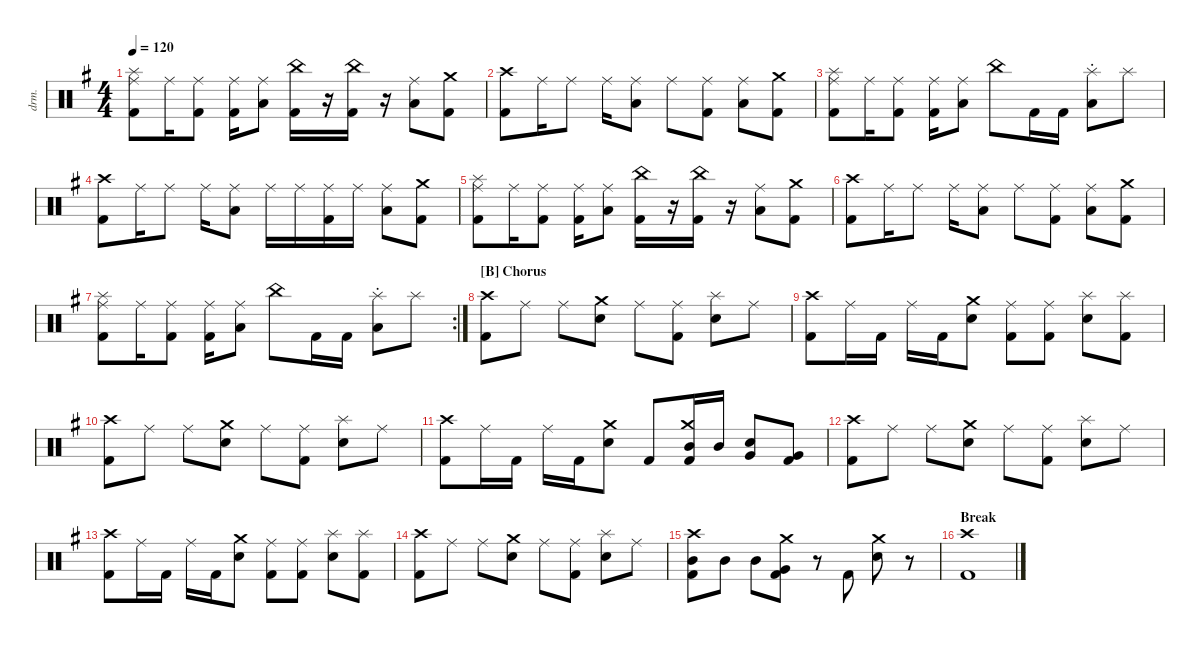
\defaultSystemsLayout 4
\hideDynamics
\bracketExtendMode nobrackets
\track ("Drums" "drm.") {instrument percussion}
\staff {score}
\articulation defaults
\ts (4 4)
\tempo 120
\clef neutral
\ks g
("Kick (hit) 2"{acc forcenatural} "Ride (middle)"{acc forcenatural} "Splash (hit)"{acc forcenatural}).8{dy mf beam Down} "Ride (middle)"{acc forcenatural}.16{beam Down} ("Kick (hit) 2"{acc forcenatural} "Ride (middle)"{acc forcenatural}).8{beam Down} ("Kick (hit) 2"{acc forcenatural} "Ride (middle)"{acc forcenatural}).16{beam Down} ("Low Floor Tom (hit)"{acc forcenatural} "Ride (middle)"{acc forcenatural}).8{beam Down} ("Kick (hit) 2"{acc forcenatural} "China (choke)"{acc forcenatural}).16{beam Down} r.16{beam Down} ("Kick (hit) 2"{acc forcenatural} "China (choke)"{acc forcenatural}).16{beam Down} r.16{beam Down} ("Low Floor Tom (hit)"{acc forcenatural} "Ride (middle)"{acc forcenatural}).8{beam Down} ("Kick (hit) 2"{acc forcenatural} "Crash medium (hit)"{acc forcenatural}).8{beam Down} |
("Kick (hit) 2"{acc forcenatural} "Crash high (hit)"{acc forcenatural}).8{beam Down} "Ride (middle)"{acc forcenatural}.16{beam Down} "Ride (middle)"{acc forcenatural}.8{beam Down} "Ride (middle)"{acc forcenatural}.16{beam Down} ("Low Floor Tom (hit)"{acc forcenatural} "Ride (middle)"{acc forcenatural}).8{beam Down} "Ride (middle)"{acc forcenatural}.8{beam Down} ("Kick (hit) 2"{acc forcenatural} "Ride (middle)"{acc forcenatural}).8{beam Down} ("Low Floor Tom (hit)"{acc forcenatural} "Ride (middle)"{acc forcenatural}).8{beam Down} ("Kick (hit) 2"{acc forcenatural} "Crash medium (hit)"{acc forcenatural}).8{beam Down} |
("Kick (hit) 2"{acc forcenatural} "Splash (hit)"{acc forcenatural} "Ride (middle)"{acc forcenatural}).8{beam Down} "Ride (middle)"{acc forcenatural}.16{beam Down} ("Kick (hit) 2"{acc forcenatural} "Ride (middle)"{acc forcenatural}).8{beam Down} ("Kick (hit) 2"{acc forcenatural} "Ride (middle)"{acc forcenatural}).16{beam Down} ("Low Floor Tom (hit)"{acc forcenatural} "Ride (middle)"{acc forcenatural}).8{beam Down} "China (choke)"{acc forcenatural}.8{beam Down} "Kick (hit) 2"{acc forcenatural}.16{beam Down} "Kick (hit) 2"{acc forcenatural}.16{beam Down} ("Low Floor Tom (hit)"{acc forcenatural} "Splash (choke)"{acc forcenatural}).8{beam Down} "Splash (hit)"{acc forcenatural}.8{beam Down} |
("Kick (hit) 2"{acc forcenatural} "Crash high (hit)"{acc forcenatural}).8{beam Down} "Ride (middle)"{acc forcenatural}.16{beam Down} "Ride (middle)"{acc forcenatural}.8{beam Down} "Ride (middle)"{acc forcenatural}.16{beam Down} ("Low Floor Tom (hit)"{acc forcenatural} "Ride (middle)"{acc forcenatural}).8{beam Down} "Ride (middle)"{acc forcenatural}.16{beam Down} "Ride (middle)"{acc forcenatural}.16{beam Down} ("Kick (hit) 2"{acc forcenatural} "Ride (middle)"{acc forcenatural}).16{beam Down} "Ride (middle)"{acc forcenatural}.16{beam Down} ("Low Floor Tom (hit)"{acc forcenatural} "Ride (middle)"{acc forcenatural}).8{beam Down} ("Kick (hit) 2"{acc forcenatural} "Crash medium (hit)"{acc forcenatural}).8{beam Down} |
("Kick (hit) 2"{acc forcenatural} "Ride (middle)"{acc forcenatural} "Splash (hit)"{acc forcenatural}).8{beam Down} "Ride (middle)"{acc forcenatural}.16{beam Down} ("Kick (hit) 2"{acc forcenatural} "Ride (middle)"{acc forcenatural}).8{beam Down} ("Kick (hit) 2"{acc forcenatural} "Ride (middle)"{acc forcenatural}).16{beam Down} ("Low Floor Tom (hit)"{acc forcenatural} "Ride (middle)"{acc forcenatural}).8{beam Down} ("Kick (hit) 2"{acc forcenatural} "China (choke)"{acc forcenatural}).16{beam Down} r.16{beam Down} ("Kick (hit) 2"{acc forcenatural} "China (choke)"{acc forcenatural}).16{beam Down} r.16{beam Down} ("Low Floor Tom (hit)"{acc forcenatural} "Ride (middle)"{acc forcenatural}).8{beam Down} ("Kick (hit) 2"{acc forcenatural} "Crash medium (hit)"{acc forcenatural}).8{beam Down} |
("Kick (hit) 2"{acc forcenatural} "Crash high (hit)"{acc forcenatural}).8{beam Down} "Ride (middle)"{acc forcenatural}.16{beam Down} "Ride (middle)"{acc forcenatural}.8{beam Down} "Ride (middle)"{acc forcenatural}.16{beam Down} ("Low Floor Tom (hit)"{acc forcenatural} "Ride (middle)"{acc forcenatural}).8{beam Down} "Ride (middle)"{acc forcenatural}.8{beam Down} ("Kick (hit) 2"{acc forcenatural} "Ride (middle)"{acc forcenatural}).8{beam Down} ("Low Floor Tom (hit)"{acc forcenatural} "Ride (middle)"{acc forcenatural}).8{beam Down} ("Kick (hit) 2"{acc forcenatural} "Crash medium (hit)"{acc forcenatural}).8{beam Down} |
\rc 2
("Kick (hit) 2"{acc forcenatural} "Splash (hit)"{acc forcenatural} "Ride (middle)"{acc forcenatural}).8{beam Down} "Ride (middle)"{acc forcenatural}.16{beam Down} ("Kick (hit) 2"{acc forcenatural} "Ride (middle)"{acc forcenatural}).8{beam Down} ("Kick (hit) 2"{acc forcenatural} "Ride (middle)"{acc forcenatural}).16{beam Down} ("Low Floor Tom (hit)"{acc forcenatural} "Ride (middle)"{acc forcenatural}).8{beam Down} "China (choke)"{acc forcenatural}.8{beam Down} "Kick (hit) 2"{acc forcenatural}.16{beam Down} "Kick (hit) 2"{acc forcenatural}.16{beam Down} ("Low Floor Tom (hit)"{acc forcenatural} "Splash (choke)"{acc forcenatural}).8{beam Down} "Splash (hit)"{acc forcenatural}.8{beam Down} |
\section ("B" "Chorus")
("Crash high (hit)"{acc forcenatural} "Kick (hit) 2"{acc forcenatural}).8{beam Down} "Ride (middle)"{acc forcenatural}.8{beam Down} "Ride (middle)"{acc forcenatural}.8{beam Down} ("Crash medium (hit)"{acc forcenatural} "Snare (hit) 2"{acc forcenatural}).8{beam Down} "Ride (middle)"{acc forcenatural}.8{beam Down} ("Ride (middle)"{acc forcenatural} "Kick (hit) 2"{acc forcenatural}).8{beam Down} ("Splash (hit)"{acc forcenatural} "Snare (hit) 2"{acc forcenatural}).8{beam Down} "Ride (middle)"{acc forcenatural}.8{beam Down} |
("Crash high (hit)"{acc forcenatural} "Kick (hit) 2"{acc forcenatural}).8{beam Down} "Ride (middle)"{acc forcenatural}.16{beam Down} "Kick (hit) 2"{acc forcenatural}.16{beam Down} "Ride (middle)"{acc forcenatural}.16{beam Down} "Kick (hit) 2"{acc forcenatural}.16{beam Down} ("Crash medium (hit)"{acc forcenatural} "Snare (hit) 2"{acc forcenatural}).8{beam Down} ("Ride (middle)"{acc forcenatural} "Kick (hit) 2"{acc forcenatural}).8{beam Down} ("Ride (middle)"{acc forcenatural} "Kick (hit) 2"{acc forcenatural}).8{beam Down} ("Splash (hit)"{acc forcenatural} "Snare (hit) 2"{acc forcenatural}).8{beam Down} ("Splash (hit)"{acc forcenatural} "Kick (hit) 2"{acc forcenatural}).8{beam Down} |
("Crash high (hit)"{acc forcenatural} "Kick (hit) 2"{acc forcenatural}).8{beam Down} "Ride (middle)"{acc forcenatural}.8{beam Down} "Ride (middle)"{acc forcenatural}.8{beam Down} ("Crash medium (hit)"{acc forcenatural} "Snare (hit) 2"{acc forcenatural}).8{beam Down} "Ride (middle)"{acc forcenatural}.8{beam Down} ("Ride (middle)"{acc forcenatural} "Kick (hit) 2"{acc forcenatural}).8{beam Down} ("Splash (hit)"{acc forcenatural} "Snare (hit) 2"{acc forcenatural}).8{beam Down} "Ride (middle)"{acc forcenatural}.8{beam Down} |
("Crash high (hit)"{acc forcenatural} "Kick (hit) 2"{acc forcenatural}).8{beam Down} "Ride (middle)"{acc forcenatural}.16{beam Down} "Kick (hit) 2"{acc forcenatural}.16{beam Down} "Ride (middle)"{acc forcenatural}.16{beam Down} "Kick (hit) 2"{acc forcenatural}.16{beam Down} ("Crash medium (hit)"{acc forcenatural} "Snare (hit) 2"{acc forcenatural}).8{beam Down} "Kick (hit) 2"{acc forcenatural}.8{beam Up} ("Crash medium (hit)"{acc forcenatural} "Kick (hit) 2"{acc forcenatural} "Mid Tom (hit)"{acc forcenatural}).16{beam Up} "Mid Tom (hit)"{acc forcenatural}.16{beam Up} ("Snare (hit) 2"{acc forcenatural} "Very Low Tom (hit)"{acc forcenatural}).8{beam Up} ("Kick (hit) 2"{acc forcenatural} "Very Low Tom (hit)"{acc forcenatural}).8{beam Up} |
("Crash high (hit)"{acc forcenatural} "Kick (hit) 2"{acc forcenatural}).8{beam Down} "Ride (middle)"{acc forcenatural}.8{beam Down} "Ride (middle)"{acc forcenatural}.8{beam Down} ("Crash medium (hit)"{acc forcenatural} "Snare (hit) 2"{acc forcenatural}).8{beam Down} "Ride (middle)"{acc forcenatural}.8{beam Down} ("Ride (middle)"{acc forcenatural} "Kick (hit) 2"{acc forcenatural}).8{beam Down} ("Splash (hit)"{acc forcenatural} "Snare (hit) 2"{acc forcenatural}).8{beam Down} "Ride (middle)"{acc forcenatural}.8{beam Down} |
("Crash high (hit)"{acc forcenatural} "Kick (hit) 2"{acc forcenatural}).8{beam Down} "Ride (middle)"{acc forcenatural}.16{beam Down} "Kick (hit) 2"{acc forcenatural}.16{beam Down} "Ride (middle)"{acc forcenatural}.16{beam Down} "Kick (hit) 2"{acc forcenatural}.16{beam Down} ("Crash medium (hit)"{acc forcenatural} "Snare (hit) 2"{acc forcenatural}).8{beam Down} ("Ride (middle)"{acc forcenatural} "Kick (hit) 2"{acc forcenatural}).8{beam Down} ("Ride (middle)"{acc forcenatural} "Kick (hit) 2"{acc forcenatural}).8{beam Down} ("Splash (hit)"{acc forcenatural} "Snare (hit) 2"{acc forcenatural}).8{beam Down} ("Splash (hit)"{acc forcenatural} "Kick (hit) 2"{acc forcenatural}).8{beam Down} |
("Crash high (hit)"{acc forcenatural} "Kick (hit) 2"{acc forcenatural}).8{beam Down} "Ride (middle)"{acc forcenatural}.8{beam Down} "Ride (middle)"{acc forcenatural}.8{beam Down} ("Crash medium (hit)"{acc forcenatural} "Snare (hit) 2"{acc forcenatural}).8{beam Down} "Ride (middle)"{acc forcenatural}.8{beam Down} ("Ride (middle)"{acc forcenatural} "Kick (hit) 2"{acc forcenatural}).8{beam Down} ("Splash (hit)"{acc forcenatural} "Snare (hit) 2"{acc forcenatural}).8{beam Down} "Ride (middle)"{acc forcenatural}.8{beam Down} |
("Crash high (hit)"{acc forcenatural} "Kick (hit) 2"{acc forcenatural} "Mid Tom (hit)"{acc forcenatural}).8{beam Down} "Mid Tom (hit)"{acc forcenatural}.8{beam Down} "Mid Tom (hit)"{acc forcenatural}.8{beam Down} ("Crash medium (hit)"{acc forcenatural} "Very Low Tom (hit)"{acc forcenatural} "Kick (hit) 2"{acc forcenatural}).8{beam Down} r.8{beam Down} "Kick (hit) 2"{acc forcenatural}.8{beam Up} ("Crash medium (hit)"{acc forcenatural} "Snare (hit) 2"{acc forcenatural}).8{beam Down} r.8{beam Down} |
\section ("" "Break")
("Crash high (hit)"{acc forcenatural} "Kick (hit) 2"{acc forcenatural}).1{beam Down}
